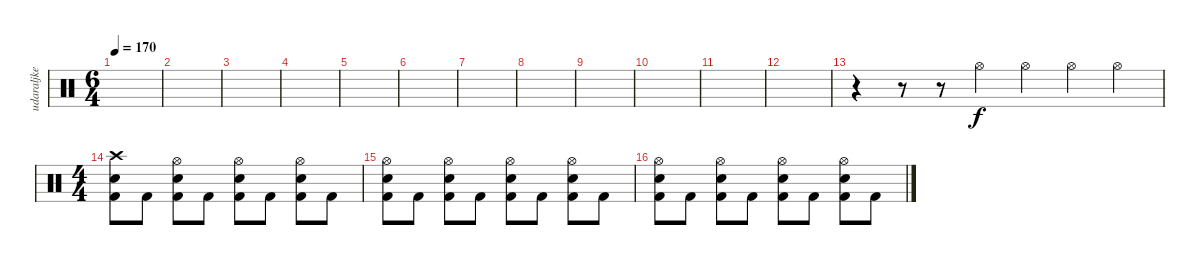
\track ("udaraljke" "udaraljke") {instrument percussion}
\staff {score}
\articulation defaults
\ts (6 4)
\tempo 170
\clef neutral
\ks c
|
|
|
|
|
|
|
|
|
|
|
|
r.4 r.8 r.8 "Hi-Hat (open)".4 "Hi-Hat (open)".4 "Hi-Hat (open)".4 "Hi-Hat (open)".4 |
\ts (4 4)
("Crash high (hit)" "Snare (hit) 2" "Kick (hit) 2").8 "Kick (hit) 2".8 ("Hi-Hat (open)" "Snare (hit) 2" "Kick (hit) 2").8 "Kick (hit) 2".8 ("Hi-Hat (open)" "Snare (hit) 2" "Kick (hit) 2").8 "Kick (hit) 2".8 ("Hi-Hat (open)" "Snare (hit) 2" "Kick (hit) 2").8 "Kick (hit) 2".8 |
("Hi-Hat (open)" "Snare (hit) 2" "Kick (hit) 2").8 "Kick (hit) 2".8 ("Hi-Hat (open)" "Snare (hit) 2" "Kick (hit) 2").8 "Kick (hit) 2".8 ("Hi-Hat (open)" "Snare (hit) 2" "Kick (hit) 2").8 "Kick (hit) 2".8 ("Hi-Hat (open)" "Snare (hit) 2" "Kick (hit) 2").8 "Kick (hit) 2".8 |
("Hi-Hat (open)" "Snare (hit) 2" "Kick (hit) 2").8 "Kick (hit) 2".8 ("Hi-Hat (open)" "Snare (hit) 2" "Kick (hit) 2").8 "Kick (hit) 2".8 ("Hi-Hat (open)" "Snare (hit) 2" "Kick (hit) 2").8 "Kick (hit) 2".8 ("Hi-Hat (open)" "Snare (hit) 2" "Kick (hit) 2").8 "Kick (hit) 2".8
